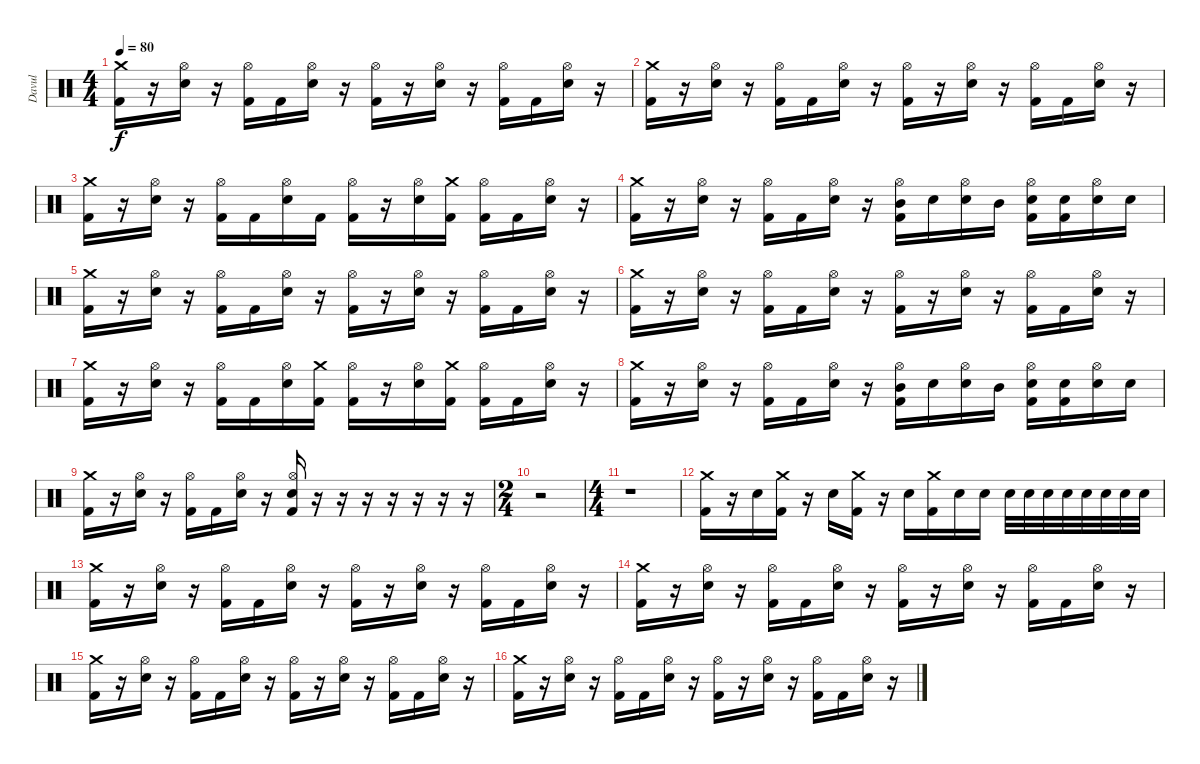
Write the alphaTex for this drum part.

\track ("Davul" "Davul") {instrument percussion}
\staff {score}
\articulation defaults
\ts (4 4)
\tempo 80
\clef neutral
\ks c
("Crash medium (hit)" "Kick (hit) 2").16{dy f} r.16 ("Hi-Hat (open)" "Snare (hit) 2").16 r.16 ("Hi-Hat (open)" "Kick (hit) 2").16 "Kick (hit) 2".16 ("Hi-Hat (open)" "Snare (hit) 2").16 r.16 ("Hi-Hat (open)" "Kick (hit) 2").16 r.16 ("Hi-Hat (open)" "Snare (hit) 2").16 r.16 ("Hi-Hat (open)" "Kick (hit) 2").16 "Kick (hit) 2".16 ("Hi-Hat (open)" "Snare (hit) 2").16 r.16 |
("Crash medium (hit)" "Kick (hit) 2").16 r.16 ("Hi-Hat (open)" "Snare (hit) 2").16 r.16 ("Hi-Hat (open)" "Kick (hit) 2").16 "Kick (hit) 2".16 ("Hi-Hat (open)" "Snare (hit) 2").16 r.16 ("Hi-Hat (open)" "Kick (hit) 2").16 r.16 ("Hi-Hat (open)" "Snare (hit) 2").16 r.16 ("Hi-Hat (open)" "Kick (hit) 2").16 "Kick (hit) 2".16 ("Hi-Hat (open)" "Snare (hit) 2").16 r.16 |
("Crash medium (hit)" "Kick (hit) 2").16 r.16 ("Hi-Hat (open)" "Snare (hit) 2").16 r.16 ("Hi-Hat (open)" "Kick (hit) 2").16 "Kick (hit) 2".16 ("Hi-Hat (open)" "Snare (hit) 2").16 "Kick (hit) 2".16 ("Hi-Hat (open)" "Kick (hit) 2").16 r.16 ("Hi-Hat (open)" "Snare (hit) 2").16 ("Crash medium (hit)" "Kick (hit) 2").16 ("Hi-Hat (open)" "Kick (hit) 2").16 "Kick (hit) 2".16 ("Hi-Hat (open)" "Snare (hit) 2").16 r.16 |
("Crash medium (hit)" "Kick (hit) 2").16 r.16 ("Hi-Hat (open)" "Snare (hit) 2").16 r.16 ("Hi-Hat (open)" "Kick (hit) 2").16 "Kick (hit) 2".16 ("Hi-Hat (open)" "Snare (hit) 2").16 r.16 ("Hi-Hat (open)" "Mid Tom (hit)" "Kick (hit) 2").16 "Snare (hit) 2".16 ("Hi-Hat (open)" "Snare (hit) 2").16 "Mid Tom (hit)".16 ("Hi-Hat (open)" "Snare (hit) 2" "Kick (hit) 2").16 ("Snare (hit) 2" "Kick (hit) 2").16 ("Hi-Hat (open)" "Snare (hit) 2").16 "Snare (hit) 2".16 |
("Crash medium (hit)" "Kick (hit) 2").16 r.16 ("Hi-Hat (open)" "Snare (hit) 2").16 r.16 ("Hi-Hat (open)" "Kick (hit) 2").16 "Kick (hit) 2".16 ("Hi-Hat (open)" "Snare (hit) 2").16 r.16 ("Hi-Hat (open)" "Kick (hit) 2").16 r.16 ("Hi-Hat (open)" "Snare (hit) 2").16 r.16 ("Hi-Hat (open)" "Kick (hit) 2").16 "Kick (hit) 2".16 ("Hi-Hat (open)" "Snare (hit) 2").16 r.16 |
("Crash medium (hit)" "Kick (hit) 2").16 r.16 ("Hi-Hat (open)" "Snare (hit) 2").16 r.16 ("Hi-Hat (open)" "Kick (hit) 2").16 "Kick (hit) 2".16 ("Hi-Hat (open)" "Snare (hit) 2").16 r.16 ("Hi-Hat (open)" "Kick (hit) 2").16 r.16 ("Hi-Hat (open)" "Snare (hit) 2").16 r.16 ("Hi-Hat (open)" "Kick (hit) 2").16 "Kick (hit) 2".16 ("Hi-Hat (open)" "Snare (hit) 2").16 r.16 |
("Crash medium (hit)" "Kick (hit) 2").16 r.16 ("Hi-Hat (open)" "Snare (hit) 2").16 r.16 ("Hi-Hat (open)" "Kick (hit) 2").16 "Kick (hit) 2".16 ("Hi-Hat (open)" "Snare (hit) 2").16 ("Crash medium (hit)" "Kick (hit) 2").16 ("Hi-Hat (open)" "Kick (hit) 2").16 r.16 ("Hi-Hat (open)" "Snare (hit) 2").16 ("Crash medium (hit)" "Kick (hit) 2").16 ("Hi-Hat (open)" "Kick (hit) 2").16 "Kick (hit) 2".16 ("Hi-Hat (open)" "Snare (hit) 2").16 r.16 |
("Crash medium (hit)" "Kick (hit) 2").16 r.16 ("Hi-Hat (open)" "Snare (hit) 2").16 r.16 ("Hi-Hat (open)" "Kick (hit) 2").16 "Kick (hit) 2".16 ("Hi-Hat (open)" "Snare (hit) 2").16 r.16 ("Hi-Hat (open)" "Mid Tom (hit)" "Kick (hit) 2").16 "Snare (hit) 2".16 ("Hi-Hat (open)" "Snare (hit) 2").16 "Mid Tom (hit)".16 ("Hi-Hat (open)" "Snare (hit) 2" "Kick (hit) 2").16 ("Snare (hit) 2" "Kick (hit) 2").16 ("Hi-Hat (open)" "Snare (hit) 2").16 "Snare (hit) 2".16 |
("Crash medium (hit)" "Kick (hit) 2").16 r.16 ("Hi-Hat (open)" "Snare (hit) 2").16 r.16 ("Hi-Hat (open)" "Kick (hit) 2").16 "Kick (hit) 2".16 ("Hi-Hat (open)" "Snare (hit) 2").16 r.16 ("Hi-Hat (open)" "Snare (hit) 2" "Kick (hit) 2").16 r.16 r.16 r.16 r.16 r.16 r.16 r.16 |
\ts (2 4)
r.2 |
\ts (4 4)
r.1 |
("Crash medium (hit)" "Kick (hit) 2").16 r.16 "Snare (hit) 2".16 ("Crash medium (hit)" "Kick (hit) 2").16 r.16 "Snare (hit) 2".16 ("Crash medium (hit)" "Kick (hit) 2").16 r.16 "Snare (hit) 2".16 ("Crash medium (hit)" "Kick (hit) 2").16 "Snare (hit) 2".16 "Snare (hit) 2".16 "Snare (hit) 2".32 "Snare (hit) 2".32 "Snare (hit) 2".32 "Snare (hit) 2".32 "Snare (hit) 2".32 "Snare (hit) 2".32 "Snare (hit) 2".32 "Snare (hit) 2".32 |
("Crash medium (hit)" "Kick (hit) 2").16 r.16 ("Hi-Hat (open)" "Snare (hit) 2").16 r.16 ("Hi-Hat (open)" "Kick (hit) 2").16 "Kick (hit) 2".16 ("Hi-Hat (open)" "Snare (hit) 2").16 r.16 ("Hi-Hat (open)" "Kick (hit) 2").16 r.16 ("Hi-Hat (open)" "Snare (hit) 2").16 r.16 ("Hi-Hat (open)" "Kick (hit) 2").16 "Kick (hit) 2".16 ("Hi-Hat (open)" "Snare (hit) 2").16 r.16 |
("Crash medium (hit)" "Kick (hit) 2").16 r.16 ("Hi-Hat (open)" "Snare (hit) 2").16 r.16 ("Hi-Hat (open)" "Kick (hit) 2").16 "Kick (hit) 2".16 ("Hi-Hat (open)" "Snare (hit) 2").16 r.16 ("Hi-Hat (open)" "Kick (hit) 2").16 r.16 ("Hi-Hat (open)" "Snare (hit) 2").16 r.16 ("Hi-Hat (open)" "Kick (hit) 2").16 "Kick (hit) 2".16 ("Hi-Hat (open)" "Snare (hit) 2").16 r.16 |
("Crash medium (hit)" "Kick (hit) 2").16 r.16 ("Hi-Hat (open)" "Snare (hit) 2").16 r.16 ("Hi-Hat (open)" "Kick (hit) 2").16 "Kick (hit) 2".16 ("Hi-Hat (open)" "Snare (hit) 2").16 r.16 ("Hi-Hat (open)" "Kick (hit) 2").16 r.16 ("Hi-Hat (open)" "Snare (hit) 2").16 r.16 ("Hi-Hat (open)" "Kick (hit) 2").16 "Kick (hit) 2".16 ("Hi-Hat (open)" "Snare (hit) 2").16 r.16 |
("Crash medium (hit)" "Kick (hit) 2").16 r.16 ("Hi-Hat (open)" "Snare (hit) 2").16 r.16 ("Hi-Hat (open)" "Kick (hit) 2").16 "Kick (hit) 2".16 ("Hi-Hat (open)" "Snare (hit) 2").16 r.16 ("Hi-Hat (open)" "Kick (hit) 2").16 r.16 ("Hi-Hat (open)" "Snare (hit) 2").16 r.16 ("Hi-Hat (open)" "Kick (hit) 2").16 "Kick (hit) 2".16 ("Hi-Hat (open)" "Snare (hit) 2").16 r.16
